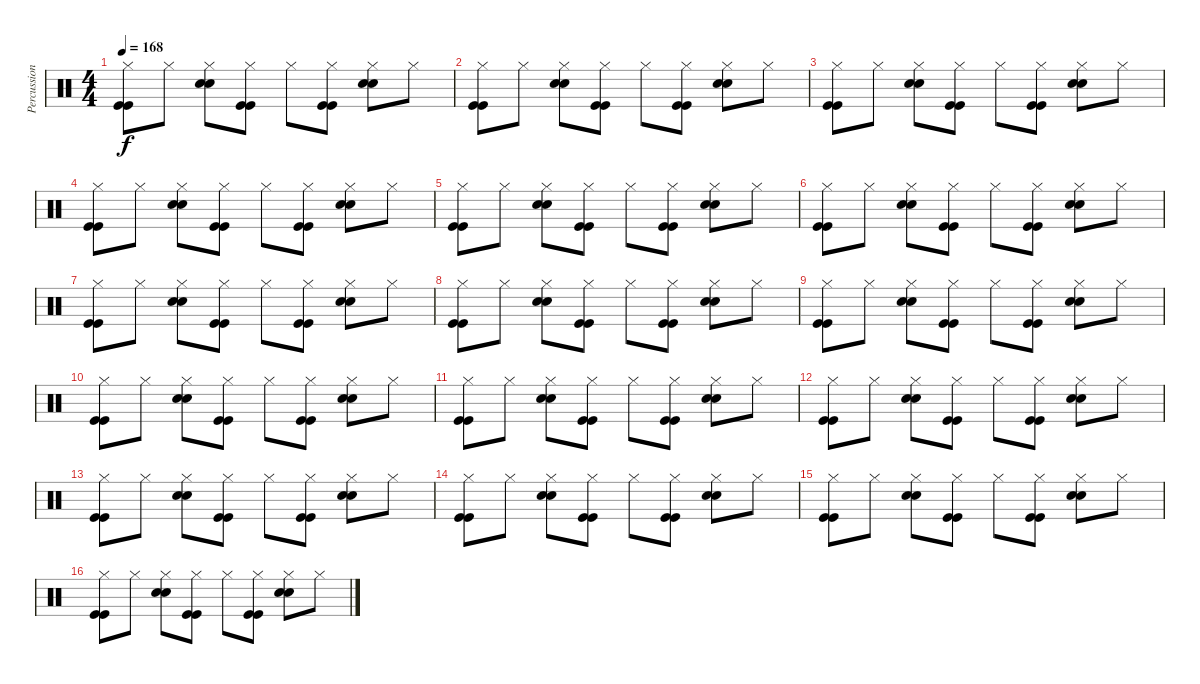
\track ("Percussion" "Percussion") {instrument percussion}
\staff {score}
\articulation defaults
\ts (4 4)
\tempo 168
\clef neutral
\ks c
("Kick (hit)" "Hi-Hat (closed)" "Kick (hit)").8{dy f} "Hi-Hat (closed)".8 ("Snare (hit) 2" "Hi-Hat (closed)" "Snare (hit) 2").8 ("Kick (hit)" "Hi-Hat (closed)" "Kick (hit)").8 "Hi-Hat (closed)".8 ("Kick (hit)" "Hi-Hat (closed)" "Kick (hit)").8 ("Snare (hit) 2" "Hi-Hat (closed)" "Snare (hit) 2").8 "Hi-Hat (closed)".8 |
("Kick (hit)" "Hi-Hat (closed)" "Kick (hit)").8 "Hi-Hat (closed)".8 ("Snare (hit) 2" "Hi-Hat (closed)" "Snare (hit) 2").8 ("Kick (hit)" "Hi-Hat (closed)" "Kick (hit)").8 "Hi-Hat (closed)".8 ("Kick (hit)" "Hi-Hat (closed)" "Kick (hit)").8 ("Snare (hit) 2" "Hi-Hat (closed)" "Snare (hit) 2").8 "Hi-Hat (closed)".8 |
("Kick (hit)" "Hi-Hat (closed)" "Kick (hit)").8 "Hi-Hat (closed)".8 ("Snare (hit) 2" "Hi-Hat (closed)" "Snare (hit) 2").8 ("Kick (hit)" "Hi-Hat (closed)" "Kick (hit)").8 "Hi-Hat (closed)".8 ("Kick (hit)" "Hi-Hat (closed)" "Kick (hit)").8 ("Snare (hit) 2" "Hi-Hat (closed)" "Snare (hit) 2").8 "Hi-Hat (closed)".8 |
("Kick (hit)" "Hi-Hat (closed)" "Kick (hit)").8 "Hi-Hat (closed)".8 ("Snare (hit) 2" "Hi-Hat (closed)" "Snare (hit) 2").8 ("Kick (hit)" "Hi-Hat (closed)" "Kick (hit)").8 "Hi-Hat (closed)".8 ("Kick (hit)" "Hi-Hat (closed)" "Kick (hit)").8 ("Snare (hit) 2" "Hi-Hat (closed)" "Snare (hit) 2").8 "Hi-Hat (closed)".8 |
("Kick (hit)" "Hi-Hat (closed)" "Kick (hit)").8 "Hi-Hat (closed)".8 ("Snare (hit) 2" "Hi-Hat (closed)" "Snare (hit) 2").8 ("Kick (hit)" "Hi-Hat (closed)" "Kick (hit)").8 "Hi-Hat (closed)".8 ("Kick (hit)" "Hi-Hat (closed)" "Kick (hit)").8 ("Snare (hit) 2" "Hi-Hat (closed)" "Snare (hit) 2").8 "Hi-Hat (closed)".8 |
("Kick (hit)" "Hi-Hat (closed)" "Kick (hit)").8 "Hi-Hat (closed)".8 ("Snare (hit) 2" "Hi-Hat (closed)" "Snare (hit) 2").8 ("Kick (hit)" "Hi-Hat (closed)" "Kick (hit)").8 "Hi-Hat (closed)".8 ("Kick (hit)" "Hi-Hat (closed)" "Kick (hit)").8 ("Snare (hit) 2" "Hi-Hat (closed)" "Snare (hit) 2").8 "Hi-Hat (closed)".8 |
("Kick (hit)" "Hi-Hat (closed)" "Kick (hit)").8 "Hi-Hat (closed)".8 ("Snare (hit) 2" "Hi-Hat (closed)" "Snare (hit) 2").8 ("Kick (hit)" "Hi-Hat (closed)" "Kick (hit)").8 "Hi-Hat (closed)".8 ("Kick (hit)" "Hi-Hat (closed)" "Kick (hit)").8 ("Snare (hit) 2" "Hi-Hat (closed)" "Snare (hit) 2").8 "Hi-Hat (closed)".8 |
("Kick (hit)" "Hi-Hat (closed)" "Kick (hit)").8 "Hi-Hat (closed)".8 ("Snare (hit) 2" "Hi-Hat (closed)" "Snare (hit) 2").8 ("Kick (hit)" "Hi-Hat (closed)" "Kick (hit)").8 "Hi-Hat (closed)".8 ("Kick (hit)" "Hi-Hat (closed)" "Kick (hit)").8 ("Snare (hit) 2" "Hi-Hat (closed)" "Snare (hit) 2").8 "Hi-Hat (closed)".8 |
("Kick (hit)" "Hi-Hat (closed)" "Kick (hit)").8 "Hi-Hat (closed)".8 ("Snare (hit) 2" "Hi-Hat (closed)" "Snare (hit) 2").8 ("Kick (hit)" "Hi-Hat (closed)" "Kick (hit)").8 "Hi-Hat (closed)".8 ("Kick (hit)" "Hi-Hat (closed)" "Kick (hit)").8 ("Snare (hit) 2" "Hi-Hat (closed)" "Snare (hit) 2").8 "Hi-Hat (closed)".8 |
("Kick (hit)" "Hi-Hat (closed)" "Kick (hit)").8 "Hi-Hat (closed)".8 ("Snare (hit) 2" "Hi-Hat (closed)" "Snare (hit) 2").8 ("Kick (hit)" "Hi-Hat (closed)" "Kick (hit)").8 "Hi-Hat (closed)".8 ("Kick (hit)" "Hi-Hat (closed)" "Kick (hit)").8 ("Snare (hit) 2" "Hi-Hat (closed)" "Snare (hit) 2").8 "Hi-Hat (closed)".8 |
("Kick (hit)" "Hi-Hat (closed)" "Kick (hit)").8 "Hi-Hat (closed)".8 ("Snare (hit) 2" "Hi-Hat (closed)" "Snare (hit) 2").8 ("Kick (hit)" "Hi-Hat (closed)" "Kick (hit)").8 "Hi-Hat (closed)".8 ("Kick (hit)" "Hi-Hat (closed)" "Kick (hit)").8 ("Snare (hit) 2" "Hi-Hat (closed)" "Snare (hit) 2").8 "Hi-Hat (closed)".8 |
("Kick (hit)" "Hi-Hat (closed)" "Kick (hit)").8 "Hi-Hat (closed)".8 ("Snare (hit) 2" "Hi-Hat (closed)" "Snare (hit) 2").8 ("Kick (hit)" "Hi-Hat (closed)" "Kick (hit)").8 "Hi-Hat (closed)".8 ("Kick (hit)" "Hi-Hat (closed)" "Kick (hit)").8 ("Snare (hit) 2" "Hi-Hat (closed)" "Snare (hit) 2").8 "Hi-Hat (closed)".8 |
("Kick (hit)" "Hi-Hat (closed)" "Kick (hit)").8 "Hi-Hat (closed)".8 ("Snare (hit) 2" "Hi-Hat (closed)" "Snare (hit) 2").8 ("Kick (hit)" "Hi-Hat (closed)" "Kick (hit)").8 "Hi-Hat (closed)".8 ("Kick (hit)" "Hi-Hat (closed)" "Kick (hit)").8 ("Snare (hit) 2" "Hi-Hat (closed)" "Snare (hit) 2").8 "Hi-Hat (closed)".8 |
("Kick (hit)" "Hi-Hat (closed)" "Kick (hit)").8 "Hi-Hat (closed)".8 ("Snare (hit) 2" "Hi-Hat (closed)" "Snare (hit) 2").8 ("Kick (hit)" "Hi-Hat (closed)" "Kick (hit)").8 "Hi-Hat (closed)".8 ("Kick (hit)" "Hi-Hat (closed)" "Kick (hit)").8 ("Snare (hit) 2" "Hi-Hat (closed)" "Snare (hit) 2").8 "Hi-Hat (closed)".8 |
("Kick (hit)" "Hi-Hat (closed)" "Kick (hit)").8 "Hi-Hat (closed)".8 ("Snare (hit) 2" "Hi-Hat (closed)" "Snare (hit) 2").8 ("Kick (hit)" "Hi-Hat (closed)" "Kick (hit)").8 "Hi-Hat (closed)".8 ("Kick (hit)" "Hi-Hat (closed)" "Kick (hit)").8 ("Snare (hit) 2" "Hi-Hat (closed)" "Snare (hit) 2").8 "Hi-Hat (closed)".8 |
("Kick (hit)" "Hi-Hat (closed)" "Kick (hit)").8 "Hi-Hat (closed)".8 ("Snare (hit) 2" "Hi-Hat (closed)" "Snare (hit) 2").8 ("Kick (hit)" "Hi-Hat (closed)" "Kick (hit)").8 "Hi-Hat (closed)".8 ("Kick (hit)" "Hi-Hat (closed)" "Kick (hit)").8 ("Snare (hit) 2" "Hi-Hat (closed)" "Snare (hit) 2").8 "Hi-Hat (closed)".8
